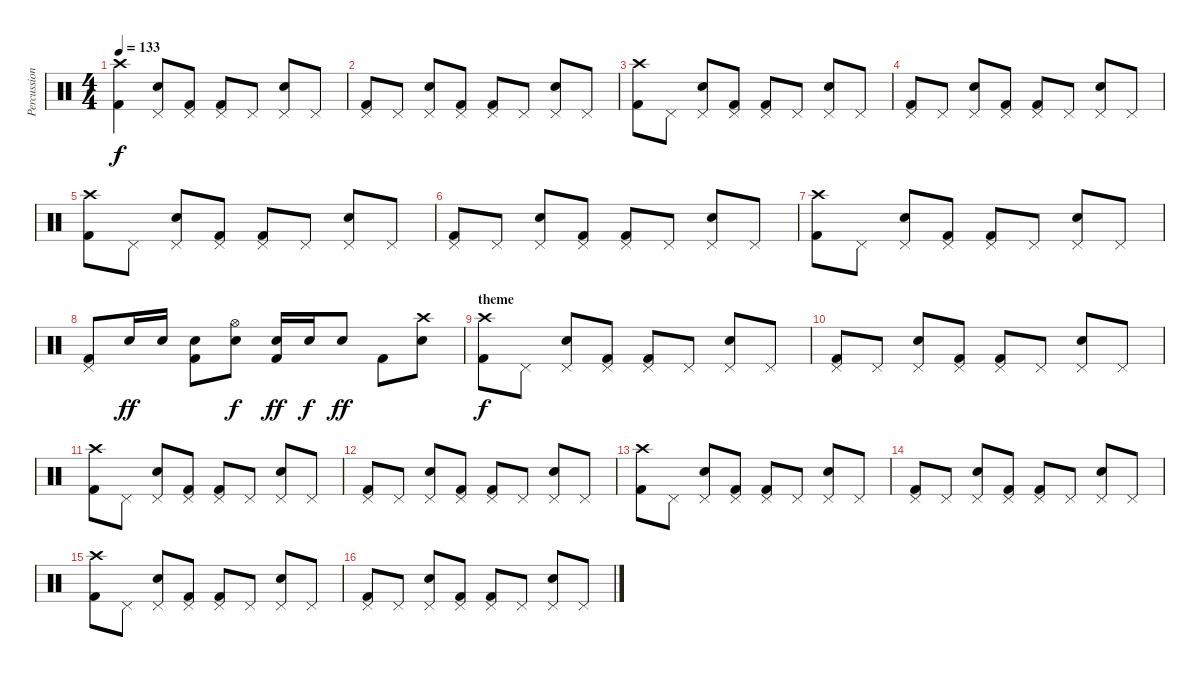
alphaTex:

\track ("Percussions" "Percussion") {instrument percussion}
\staff {score}
\articulation defaults
\ts (4 4)
\tempo 133
\clef neutral
\ks c
("Crash high (hit)" "Kick (hit) 2").4{dy f volume 15} ("Pedal Hi-Hat (hit)" "Snare (hit) 2").8 ("Pedal Hi-Hat (hit)" "Kick (hit) 2").8 ("Pedal Hi-Hat (hit)" "Kick (hit) 2").8 "Pedal Hi-Hat (hit)".8 ("Pedal Hi-Hat (hit)" "Snare (hit) 2").8 "Pedal Hi-Hat (hit)".8 |
("Pedal Hi-Hat (hit)" "Kick (hit) 2").8 "Pedal Hi-Hat (hit)".8 ("Pedal Hi-Hat (hit)" "Snare (hit) 2").8 ("Pedal Hi-Hat (hit)" "Kick (hit) 2").8 ("Pedal Hi-Hat (hit)" "Kick (hit) 2").8 "Pedal Hi-Hat (hit)".8 ("Pedal Hi-Hat (hit)" "Snare (hit) 2").8 "Pedal Hi-Hat (hit)".8 |
("Crash high (hit)" "Kick (hit) 2").8 "Pedal Hi-Hat (hit)".8 ("Pedal Hi-Hat (hit)" "Snare (hit) 2").8 ("Pedal Hi-Hat (hit)" "Kick (hit) 2").8 ("Pedal Hi-Hat (hit)" "Kick (hit) 2").8 "Pedal Hi-Hat (hit)".8 ("Pedal Hi-Hat (hit)" "Snare (hit) 2").8 "Pedal Hi-Hat (hit)".8 |
("Pedal Hi-Hat (hit)" "Kick (hit) 2").8 "Pedal Hi-Hat (hit)".8 ("Pedal Hi-Hat (hit)" "Snare (hit) 2").8 ("Pedal Hi-Hat (hit)" "Kick (hit) 2").8 ("Pedal Hi-Hat (hit)" "Kick (hit) 2").8 "Pedal Hi-Hat (hit)".8 ("Pedal Hi-Hat (hit)" "Snare (hit) 2").8 "Pedal Hi-Hat (hit)".8 |
("Crash high (hit)" "Kick (hit) 2").8 "Pedal Hi-Hat (hit)".8 ("Pedal Hi-Hat (hit)" "Snare (hit) 2").8 ("Pedal Hi-Hat (hit)" "Kick (hit) 2").8 ("Pedal Hi-Hat (hit)" "Kick (hit) 2").8 "Pedal Hi-Hat (hit)".8 ("Pedal Hi-Hat (hit)" "Snare (hit) 2").8 "Pedal Hi-Hat (hit)".8 |
("Pedal Hi-Hat (hit)" "Kick (hit) 2").8 "Pedal Hi-Hat (hit)".8 ("Pedal Hi-Hat (hit)" "Snare (hit) 2").8 ("Pedal Hi-Hat (hit)" "Kick (hit) 2").8 ("Pedal Hi-Hat (hit)" "Kick (hit) 2").8 "Pedal Hi-Hat (hit)".8 ("Pedal Hi-Hat (hit)" "Snare (hit) 2").8 "Pedal Hi-Hat (hit)".8 |
("Crash high (hit)" "Kick (hit) 2").8 "Pedal Hi-Hat (hit)".8 ("Pedal Hi-Hat (hit)" "Snare (hit) 2").8 ("Pedal Hi-Hat (hit)" "Kick (hit) 2").8 ("Pedal Hi-Hat (hit)" "Kick (hit) 2").8 "Pedal Hi-Hat (hit)".8 ("Pedal Hi-Hat (hit)" "Snare (hit) 2").8 "Pedal Hi-Hat (hit)".8 |
("Pedal Hi-Hat (hit)" "Kick (hit) 2").8 "Snare (hit) 2".16{dy ff} "Snare (hit) 2".16 ("Electric Snare (hit)" "Kick (hit) 2").8 ("Hi-Hat (open)" "Electric Snare (hit)").8{dy f} ("Electric Snare (hit)" "Kick (hit) 2").16{dy ff} "Electric Snare (hit)".16{dy f} "Snare (hit) 2".8{dy ff} "Kick (hit) 2".8 ("Crash high (hit)" "Snare (hit) 2").8 |
\section ("" "theme")
("Crash high (hit)" "Kick (hit) 2").8{dy f} "Pedal Hi-Hat (hit)".8 ("Pedal Hi-Hat (hit)" "Snare (hit) 2").8 ("Pedal Hi-Hat (hit)" "Kick (hit) 2").8 ("Pedal Hi-Hat (hit)" "Kick (hit) 2").8 "Pedal Hi-Hat (hit)".8 ("Pedal Hi-Hat (hit)" "Snare (hit) 2").8 "Pedal Hi-Hat (hit)".8 |
("Pedal Hi-Hat (hit)" "Kick (hit) 2").8 "Pedal Hi-Hat (hit)".8 ("Pedal Hi-Hat (hit)" "Snare (hit) 2").8 ("Pedal Hi-Hat (hit)" "Kick (hit) 2").8 ("Pedal Hi-Hat (hit)" "Kick (hit) 2").8 "Pedal Hi-Hat (hit)".8 ("Pedal Hi-Hat (hit)" "Snare (hit) 2").8 "Pedal Hi-Hat (hit)".8 |
("Crash high (hit)" "Kick (hit) 2").8 "Pedal Hi-Hat (hit)".8 ("Pedal Hi-Hat (hit)" "Snare (hit) 2").8 ("Pedal Hi-Hat (hit)" "Kick (hit) 2").8 ("Pedal Hi-Hat (hit)" "Kick (hit) 2").8 "Pedal Hi-Hat (hit)".8 ("Pedal Hi-Hat (hit)" "Snare (hit) 2").8 "Pedal Hi-Hat (hit)".8 |
("Pedal Hi-Hat (hit)" "Kick (hit) 2").8 "Pedal Hi-Hat (hit)".8 ("Pedal Hi-Hat (hit)" "Snare (hit) 2").8 ("Pedal Hi-Hat (hit)" "Kick (hit) 2").8 ("Pedal Hi-Hat (hit)" "Kick (hit) 2").8 "Pedal Hi-Hat (hit)".8 ("Pedal Hi-Hat (hit)" "Snare (hit) 2").8 "Pedal Hi-Hat (hit)".8 |
("Crash high (hit)" "Kick (hit) 2").8 "Pedal Hi-Hat (hit)".8 ("Pedal Hi-Hat (hit)" "Snare (hit) 2").8 ("Pedal Hi-Hat (hit)" "Kick (hit) 2").8 ("Pedal Hi-Hat (hit)" "Kick (hit) 2").8 "Pedal Hi-Hat (hit)".8 ("Pedal Hi-Hat (hit)" "Snare (hit) 2").8 "Pedal Hi-Hat (hit)".8 |
("Pedal Hi-Hat (hit)" "Kick (hit) 2").8 "Pedal Hi-Hat (hit)".8 ("Pedal Hi-Hat (hit)" "Snare (hit) 2").8 ("Pedal Hi-Hat (hit)" "Kick (hit) 2").8 ("Pedal Hi-Hat (hit)" "Kick (hit) 2").8 "Pedal Hi-Hat (hit)".8 ("Pedal Hi-Hat (hit)" "Snare (hit) 2").8 "Pedal Hi-Hat (hit)".8 |
("Crash high (hit)" "Kick (hit) 2").8 "Pedal Hi-Hat (hit)".8 ("Pedal Hi-Hat (hit)" "Snare (hit) 2").8 ("Pedal Hi-Hat (hit)" "Kick (hit) 2").8 ("Pedal Hi-Hat (hit)" "Kick (hit) 2").8 "Pedal Hi-Hat (hit)".8 ("Pedal Hi-Hat (hit)" "Snare (hit) 2").8 "Pedal Hi-Hat (hit)".8 |
("Pedal Hi-Hat (hit)" "Kick (hit) 2").8 "Pedal Hi-Hat (hit)".8 ("Pedal Hi-Hat (hit)" "Snare (hit) 2").8 ("Pedal Hi-Hat (hit)" "Kick (hit) 2").8 ("Pedal Hi-Hat (hit)" "Kick (hit) 2").8 "Pedal Hi-Hat (hit)".8 ("Pedal Hi-Hat (hit)" "Snare (hit) 2").8 "Pedal Hi-Hat (hit)".8
